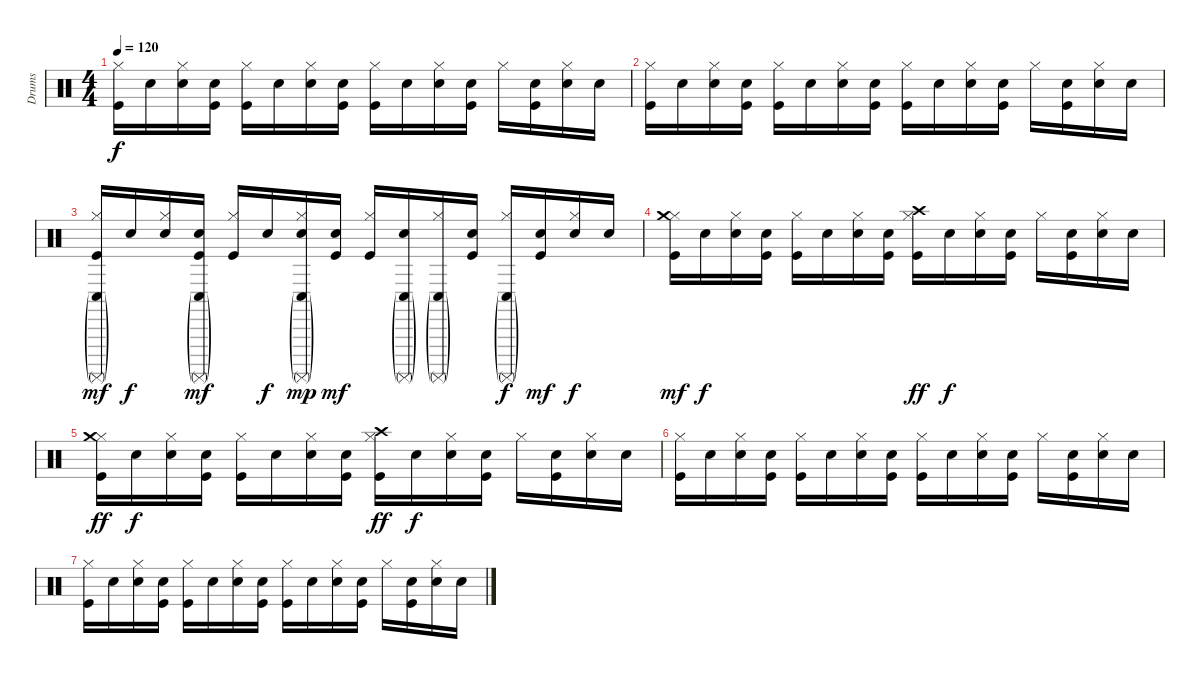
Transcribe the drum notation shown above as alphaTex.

\track ("Drums" "Drums") {instrument percussion}
\staff {score}
\articulation defaults
\ts (4 4)
\tempo 120
\clef neutral
\ks c
("Hi-Hat (closed)" "Kick (hit)").16{dy f} "Snare (hit)".16 ("Hi-Hat (closed)" "Electric Snare (hit)").16 ("Snare (hit)" "Kick (hit)").16 ("Hi-Hat (closed)" "Kick (hit)").16 "Snare (hit)".16 ("Hi-Hat (closed)" "Electric Snare (hit)").16 ("Snare (hit)" "Kick (hit)").16 ("Hi-Hat (closed)" "Kick (hit)").16 "Snare (hit)".16 ("Hi-Hat (closed)" "Electric Snare (hit)").16 ("Snare (hit)" "Kick (hit)").16 "Hi-Hat (closed)".16 ("Snare (hit)" "Kick (hit)").16 ("Hi-Hat (closed)" "Electric Snare (hit)").16 "Snare (hit)".16 |
("Hi-Hat (closed)" "Kick (hit)").16 "Snare (hit)".16 ("Hi-Hat (closed)" "Electric Snare (hit)").16 ("Snare (hit)" "Kick (hit)").16 ("Hi-Hat (closed)" "Kick (hit)").16 "Snare (hit)".16 ("Hi-Hat (closed)" "Electric Snare (hit)").16 ("Snare (hit)" "Kick (hit)").16 ("Hi-Hat (closed)" "Kick (hit)").16 "Snare (hit)".16 ("Hi-Hat (closed)" "Electric Snare (hit)").16 ("Snare (hit)" "Kick (hit)").16 "Hi-Hat (closed)".16 ("Snare (hit)" "Kick (hit)").16 ("Hi-Hat (closed)" "Electric Snare (hit)").16 "Snare (hit)".16 |
("Hi-Hat (closed)" "Surdo (mute)"{g} "Conga low (hit)"{g} "Kick (hit)").16{dy mf} "Snare (hit)".16{dy f} ("Hi-Hat (closed)" "Electric Snare (hit)").16 ("Snare (hit)" "Surdo (mute)"{g} "Conga low (hit)"{g} "Kick (hit)").16{dy mf} ("Hi-Hat (closed)" "Kick (hit)").16 "Snare (hit)".16{dy f} ("Hi-Hat (closed)" "Surdo (mute)"{g} "Conga low (hit)"{g} "Electric Snare (hit)").16{dy mp} ("Snare (hit)" "Kick (hit)").16{dy mf} ("Hi-Hat (closed)" "Kick (hit)").16 ("Snare (hit)" "Surdo (mute)"{g} "Conga low (hit)"{g}).16 ("Hi-Hat (closed)" "Surdo (mute)"{g} "Conga low (hit)"{g}).16 ("Snare (hit)" "Kick (hit)").16 ("Hi-Hat (closed)" "Surdo (mute)"{g} "Conga low (hit)"{g}).16{dy f} ("Snare (hit)" "Kick (hit)").16{dy mf} ("Hi-Hat (closed)" "Electric Snare (hit)").16{dy f} "Snare (hit)".16 |
("Hi-Hat (closed)" "Crash medium (hit)" "Kick (hit)").16{dy mf} "Snare (hit)".16{dy f} ("Hi-Hat (closed)" "Electric Snare (hit)").16 ("Snare (hit)" "Kick (hit)").16 ("Hi-Hat (closed)" "Kick (hit)").16 "Snare (hit)".16 ("Hi-Hat (closed)" "Electric Snare (hit)").16 ("Snare (hit)" "Kick (hit)").16 ("Hi-Hat (closed)" "Crash high (hit)" "Kick (hit)").16{dy ff} "Snare (hit)".16{dy f} ("Hi-Hat (closed)" "Electric Snare (hit)").16 ("Snare (hit)" "Kick (hit)").16 "Hi-Hat (closed)".16 ("Snare (hit)" "Kick (hit)").16 ("Hi-Hat (closed)" "Electric Snare (hit)").16 "Snare (hit)".16 |
("Hi-Hat (closed)" "Crash medium (hit)" "Kick (hit)").16{dy ff} "Snare (hit)".16{dy f} ("Hi-Hat (closed)" "Electric Snare (hit)").16 ("Snare (hit)" "Kick (hit)").16 ("Hi-Hat (closed)" "Kick (hit)").16 "Snare (hit)".16 ("Hi-Hat (closed)" "Electric Snare (hit)").16 ("Snare (hit)" "Kick (hit)").16 ("Hi-Hat (closed)" "Crash high (hit)" "Kick (hit)").16{dy ff} "Snare (hit)".16{dy f} ("Hi-Hat (closed)" "Electric Snare (hit)").16 ("Snare (hit)" "Kick (hit)").16 "Hi-Hat (closed)".16 ("Snare (hit)" "Kick (hit)").16 ("Hi-Hat (closed)" "Electric Snare (hit)").16 "Snare (hit)".16 |
("Hi-Hat (closed)" "Kick (hit)").16 "Snare (hit)".16 ("Hi-Hat (closed)" "Electric Snare (hit)").16 ("Snare (hit)" "Kick (hit)").16 ("Hi-Hat (closed)" "Kick (hit)").16 "Snare (hit)".16 ("Hi-Hat (closed)" "Electric Snare (hit)").16 ("Snare (hit)" "Kick (hit)").16 ("Hi-Hat (closed)" "Kick (hit)").16 "Snare (hit)".16 ("Hi-Hat (closed)" "Electric Snare (hit)").16 ("Snare (hit)" "Kick (hit)").16 "Hi-Hat (closed)".16 ("Snare (hit)" "Kick (hit)").16 ("Hi-Hat (closed)" "Electric Snare (hit)").16 "Snare (hit)".16 |
("Hi-Hat (closed)" "Kick (hit)").16 "Snare (hit)".16 ("Hi-Hat (closed)" "Electric Snare (hit)").16 ("Snare (hit)" "Kick (hit)").16 ("Hi-Hat (closed)" "Kick (hit)").16 "Snare (hit)".16 ("Hi-Hat (closed)" "Electric Snare (hit)").16 ("Snare (hit)" "Kick (hit)").16 ("Hi-Hat (closed)" "Kick (hit)").16 "Snare (hit)".16 ("Hi-Hat (closed)" "Electric Snare (hit)").16 ("Snare (hit)" "Kick (hit)").16 "Hi-Hat (closed)".16 ("Snare (hit)" "Kick (hit)").16 ("Hi-Hat (closed)" "Electric Snare (hit)").16 "Snare (hit)".16
